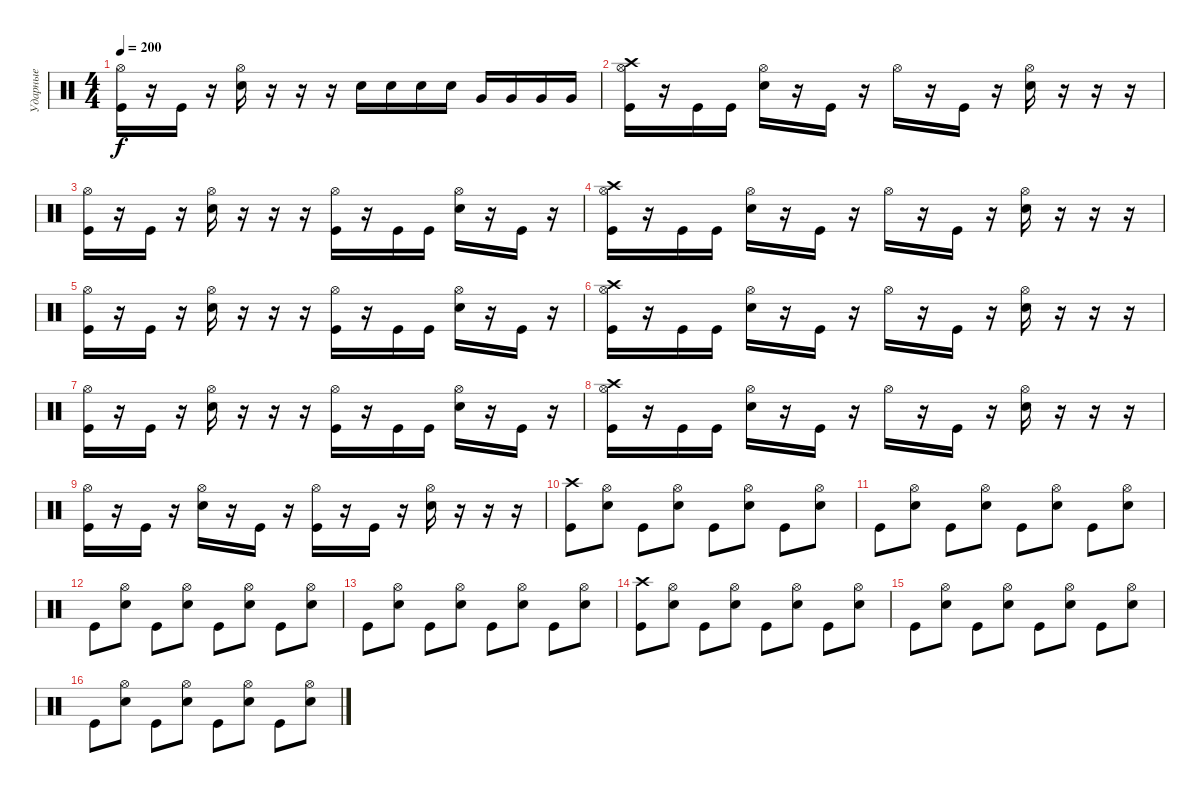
\track ("Ударные" "Ударные") {instrument percussion}
\staff {score}
\articulation defaults
\ts (4 4)
\tempo 200
\clef neutral
\ks c
("Hi-Hat (open)" "Kick (hit)").16{dy f} r.16 "Kick (hit)".16 r.16 ("Hi-Hat (open)" "Electric Snare (hit)").16 r.16 r.16 r.16 "Electric Snare (hit)".16 "Electric Snare (hit)".16 "Electric Snare (hit)".16 "Electric Snare (hit)".16 "Very Low Tom (hit)".16 "Very Low Tom (hit)".16 "Very Low Tom (hit)".16 "Very Low Tom (hit)".16 |
("Hi-Hat (open)" "Crash high (hit)" "Kick (hit)").16 r.16 "Kick (hit)".16 "Kick (hit)".16 ("Hi-Hat (open)" "Electric Snare (hit)").16 r.16 "Kick (hit)".16 r.16 "Hi-Hat (open)".16 r.16 "Kick (hit)".16 r.16 ("Hi-Hat (open)" "Electric Snare (hit)").16 r.16 r.16 r.16 |
("Hi-Hat (open)" "Kick (hit)").16 r.16 "Kick (hit)".16 r.16 ("Hi-Hat (open)" "Electric Snare (hit)").16 r.16 r.16 r.16 ("Hi-Hat (open)" "Kick (hit)").16 r.16 "Kick (hit)".16 "Kick (hit)".16 ("Hi-Hat (open)" "Electric Snare (hit)").16 r.16 "Kick (hit)".16 r.16 |
("Hi-Hat (open)" "Crash high (hit)" "Kick (hit)").16 r.16 "Kick (hit)".16 "Kick (hit)".16 ("Hi-Hat (open)" "Electric Snare (hit)").16 r.16 "Kick (hit)".16 r.16 "Hi-Hat (open)".16 r.16 "Kick (hit)".16 r.16 ("Hi-Hat (open)" "Electric Snare (hit)").16 r.16 r.16 r.16 |
("Hi-Hat (open)" "Kick (hit)").16 r.16 "Kick (hit)".16 r.16 ("Hi-Hat (open)" "Electric Snare (hit)").16 r.16 r.16 r.16 ("Hi-Hat (open)" "Kick (hit)").16 r.16 "Kick (hit)".16 "Kick (hit)".16 ("Hi-Hat (open)" "Electric Snare (hit)").16 r.16 "Kick (hit)".16 r.16 |
("Hi-Hat (open)" "Crash high (hit)" "Kick (hit)").16 r.16 "Kick (hit)".16 "Kick (hit)".16 ("Hi-Hat (open)" "Electric Snare (hit)").16 r.16 "Kick (hit)".16 r.16 "Hi-Hat (open)".16 r.16 "Kick (hit)".16 r.16 ("Hi-Hat (open)" "Electric Snare (hit)").16 r.16 r.16 r.16 |
("Hi-Hat (open)" "Kick (hit)").16 r.16 "Kick (hit)".16 r.16 ("Hi-Hat (open)" "Electric Snare (hit)").16 r.16 r.16 r.16 ("Hi-Hat (open)" "Kick (hit)").16 r.16 "Kick (hit)".16 "Kick (hit)".16 ("Hi-Hat (open)" "Electric Snare (hit)").16 r.16 "Kick (hit)".16 r.16 |
("Hi-Hat (open)" "Crash high (hit)" "Kick (hit)").16 r.16 "Kick (hit)".16 "Kick (hit)".16 ("Hi-Hat (open)" "Electric Snare (hit)").16 r.16 "Kick (hit)".16 r.16 "Hi-Hat (open)".16 r.16 "Kick (hit)".16 r.16 ("Hi-Hat (open)" "Electric Snare (hit)").16 r.16 r.16 r.16 |
("Hi-Hat (open)" "Kick (hit)").16 r.16 "Kick (hit)".16 r.16 ("Hi-Hat (open)" "Electric Snare (hit)").16 r.16 "Kick (hit)".16 r.16 ("Hi-Hat (open)" "Kick (hit)").16 r.16 "Kick (hit)".16 r.16 ("Hi-Hat (open)" "Electric Snare (hit)").16 r.16 r.16 r.16 |
("Crash high (hit)" "Kick (hit)").8 ("Hi-Hat (open)" "Electric Snare (hit)").8 "Kick (hit)".8 ("Hi-Hat (open)" "Electric Snare (hit)").8 "Kick (hit)".8 ("Hi-Hat (open)" "Electric Snare (hit)").8 "Kick (hit)".8 ("Hi-Hat (open)" "Electric Snare (hit)").8 |
"Kick (hit)".8 ("Hi-Hat (open)" "Electric Snare (hit)").8 "Kick (hit)".8 ("Hi-Hat (open)" "Electric Snare (hit)").8 "Kick (hit)".8 ("Hi-Hat (open)" "Electric Snare (hit)").8 "Kick (hit)".8 ("Hi-Hat (open)" "Electric Snare (hit)").8 |
"Kick (hit)".8 ("Hi-Hat (open)" "Electric Snare (hit)").8 "Kick (hit)".8 ("Hi-Hat (open)" "Electric Snare (hit)").8 "Kick (hit)".8 ("Hi-Hat (open)" "Electric Snare (hit)").8 "Kick (hit)".8 ("Hi-Hat (open)" "Electric Snare (hit)").8 |
"Kick (hit)".8 ("Hi-Hat (open)" "Electric Snare (hit)").8 "Kick (hit)".8 ("Hi-Hat (open)" "Electric Snare (hit)").8 "Kick (hit)".8 ("Hi-Hat (open)" "Electric Snare (hit)").8 "Kick (hit)".8 ("Hi-Hat (open)" "Electric Snare (hit)").8 |
("Crash high (hit)" "Kick (hit)").8 ("Hi-Hat (open)" "Electric Snare (hit)").8 "Kick (hit)".8 ("Hi-Hat (open)" "Electric Snare (hit)").8 "Kick (hit)".8 ("Hi-Hat (open)" "Electric Snare (hit)").8 "Kick (hit)".8 ("Hi-Hat (open)" "Electric Snare (hit)").8 |
"Kick (hit)".8 ("Hi-Hat (open)" "Electric Snare (hit)").8 "Kick (hit)".8 ("Hi-Hat (open)" "Electric Snare (hit)").8 "Kick (hit)".8 ("Hi-Hat (open)" "Electric Snare (hit)").8 "Kick (hit)".8 ("Hi-Hat (open)" "Electric Snare (hit)").8 |
"Kick (hit)".8 ("Hi-Hat (open)" "Electric Snare (hit)").8 "Kick (hit)".8 ("Hi-Hat (open)" "Electric Snare (hit)").8 "Kick (hit)".8 ("Hi-Hat (open)" "Electric Snare (hit)").8 "Kick (hit)".8 ("Hi-Hat (open)" "Electric Snare (hit)").8
